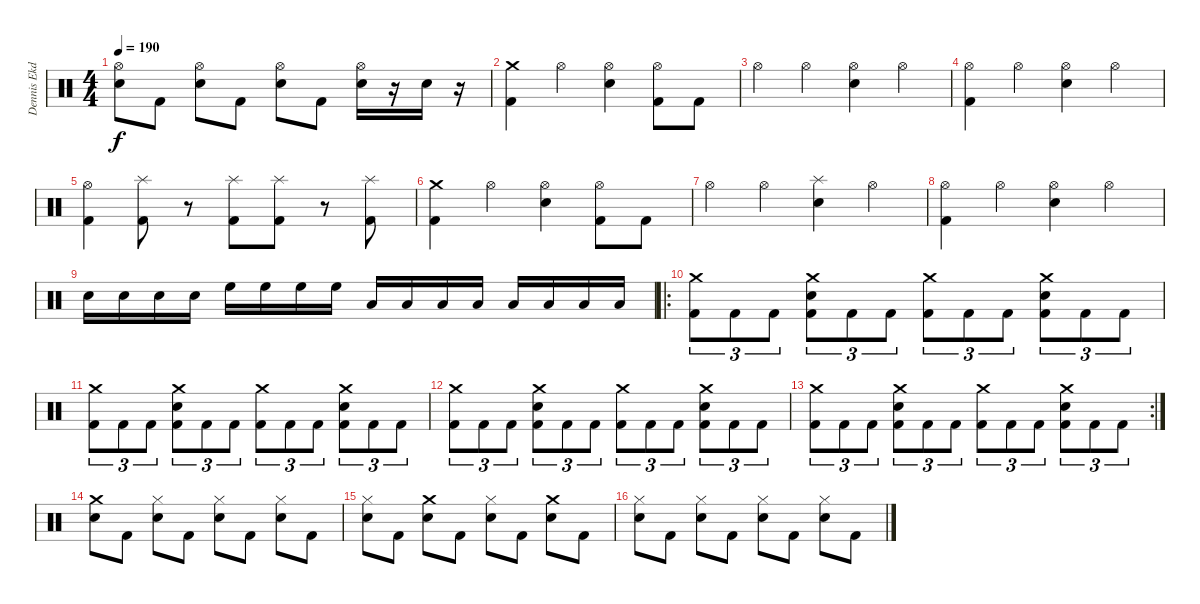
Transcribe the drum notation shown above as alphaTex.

\track ("Dennis Ekdahl" "Dennis Ekd") {instrument percussion}
\staff {score}
\articulation defaults
\ts (4 4)
\tempo 190
\clef neutral
\ks c
("Hi-Hat (open)" "Snare (hit) 2").8{dy f} "Kick (hit) 2".8 ("Hi-Hat (open)" "Snare (hit) 2").8 "Kick (hit) 2".8 ("Hi-Hat (open)" "Snare (hit) 2").8 "Kick (hit) 2".8 ("Hi-Hat (open)" "Snare (hit) 2").16 r.16 "Snare (hit) 2".16 r.16 |
("Crash medium (hit)" "Kick (hit) 2").4 "Hi-Hat (open)".4 ("Hi-Hat (open)" "Snare (hit) 2").4 ("Hi-Hat (open)" "Kick (hit) 2").8 "Kick (hit) 2".8 |
"Hi-Hat (open)".4 "Hi-Hat (open)".4 ("Hi-Hat (open)" "Snare (hit) 2").4 "Hi-Hat (open)".4 |
("Hi-Hat (open)" "Kick (hit) 2").4 "Hi-Hat (open)".4 ("Hi-Hat (open)" "Snare (hit) 2").4 "Hi-Hat (open)".4 |
("Hi-Hat (open)" "Kick (hit) 2").4 ("Splash (hit)" "Kick (hit) 2").8 r.8 ("Splash (hit)" "Kick (hit) 2").8 ("Splash (hit)" "Kick (hit) 2").8 r.8 ("Splash (hit)" "Kick (hit) 2").8 |
("Crash medium (hit)" "Kick (hit) 2").4 "Hi-Hat (open)".4 ("Hi-Hat (open)" "Snare (hit) 2").4 ("Hi-Hat (open)" "Kick (hit) 2").8 "Kick (hit) 2".8 |
"Hi-Hat (open)".4 "Hi-Hat (open)".4 ("Splash (hit)" "Snare (hit) 2").4 "Hi-Hat (open)".4 |
("Hi-Hat (open)" "Kick (hit) 2").4 "Hi-Hat (open)".4 ("Hi-Hat (open)" "Snare (hit) 2").4 "Hi-Hat (open)".4 |
"Snare (hit) 2".16 "Snare (hit) 2".16 "Snare (hit) 2".16 "Snare (hit) 2".16 "High Floor Tom (hit)".16 "High Floor Tom (hit)".16 "High Floor Tom (hit)".16 "High Floor Tom (hit)".16 "Low Tom (hit)".16 "Low Tom (hit)".16 "Low Tom (hit)".16 "Low Tom (hit)".16 "Low Floor Tom (hit)".16 "Low Floor Tom (hit)".16 "Low Floor Tom (hit)".16 "Low Floor Tom (hit)".16 |
\ro
("Crash medium (hit)" "Kick (hit) 2").8{tu (3 2)} "Kick (hit) 2".8{tu (3 2)} "Kick (hit) 2".8{tu (3 2)} ("Crash medium (hit)" "Snare (hit) 2" "Kick (hit) 2").8{tu (3 2)} "Kick (hit) 2".8{tu (3 2)} "Kick (hit) 2".8{tu (3 2)} ("Crash medium (hit)" "Kick (hit) 2").8{tu (3 2)} "Kick (hit) 2".8{tu (3 2)} "Kick (hit) 2".8{tu (3 2)} ("Crash medium (hit)" "Snare (hit) 2" "Kick (hit) 2").8{tu (3 2)} "Kick (hit) 2".8{tu (3 2)} "Kick (hit) 2".8{tu (3 2)} |
("Crash medium (hit)" "Kick (hit) 2").8{tu (3 2)} "Kick (hit) 2".8{tu (3 2)} "Kick (hit) 2".8{tu (3 2)} ("Crash medium (hit)" "Snare (hit) 2" "Kick (hit) 2").8{tu (3 2)} "Kick (hit) 2".8{tu (3 2)} "Kick (hit) 2".8{tu (3 2)} ("Crash medium (hit)" "Kick (hit) 2").8{tu (3 2)} "Kick (hit) 2".8{tu (3 2)} "Kick (hit) 2".8{tu (3 2)} ("Crash medium (hit)" "Snare (hit) 2" "Kick (hit) 2").8{tu (3 2)} "Kick (hit) 2".8{tu (3 2)} "Kick (hit) 2".8{tu (3 2)} |
("Crash medium (hit)" "Kick (hit) 2").8{tu (3 2)} "Kick (hit) 2".8{tu (3 2)} "Kick (hit) 2".8{tu (3 2)} ("Crash medium (hit)" "Snare (hit) 2" "Kick (hit) 2").8{tu (3 2)} "Kick (hit) 2".8{tu (3 2)} "Kick (hit) 2".8{tu (3 2)} ("Crash medium (hit)" "Kick (hit) 2").8{tu (3 2)} "Kick (hit) 2".8{tu (3 2)} "Kick (hit) 2".8{tu (3 2)} ("Crash medium (hit)" "Snare (hit) 2" "Kick (hit) 2").8{tu (3 2)} "Kick (hit) 2".8{tu (3 2)} "Kick (hit) 2".8{tu (3 2)} |
\rc 2
("Crash medium (hit)" "Kick (hit) 2").8{tu (3 2)} "Kick (hit) 2".8{tu (3 2)} "Kick (hit) 2".8{tu (3 2)} ("Crash medium (hit)" "Snare (hit) 2" "Kick (hit) 2").8{tu (3 2)} "Kick (hit) 2".8{tu (3 2)} "Kick (hit) 2".8{tu (3 2)} ("Crash medium (hit)" "Kick (hit) 2").8{tu (3 2)} "Kick (hit) 2".8{tu (3 2)} "Kick (hit) 2".8{tu (3 2)} ("Crash medium (hit)" "Snare (hit) 2" "Kick (hit) 2").8{tu (3 2)} "Kick (hit) 2".8{tu (3 2)} "Kick (hit) 2".8{tu (3 2)} |
("Crash medium (hit)" "Snare (hit) 2").8 "Kick (hit) 2".8 ("Hi-Hat (closed)" "Snare (hit) 2").8 "Kick (hit) 2".8 ("Hi-Hat (closed)" "Snare (hit) 2").8 "Kick (hit) 2".8 ("Hi-Hat (closed)" "Snare (hit) 2").8 "Kick (hit) 2".8 |
("Hi-Hat (closed)" "Snare (hit) 2").8 "Kick (hit) 2".8 ("Crash medium (hit)" "Snare (hit) 2").8 "Kick (hit) 2".8 ("Hi-Hat (closed)" "Snare (hit) 2").8 "Kick (hit) 2".8 ("Crash medium (hit)" "Snare (hit) 2").8 "Kick (hit) 2".8 |
("Hi-Hat (closed)" "Snare (hit) 2").8 "Kick (hit) 2".8 ("Hi-Hat (closed)" "Snare (hit) 2").8 "Kick (hit) 2".8 ("Hi-Hat (closed)" "Snare (hit) 2").8 "Kick (hit) 2".8 ("Hi-Hat (closed)" "Snare (hit) 2").8 "Kick (hit) 2".8
